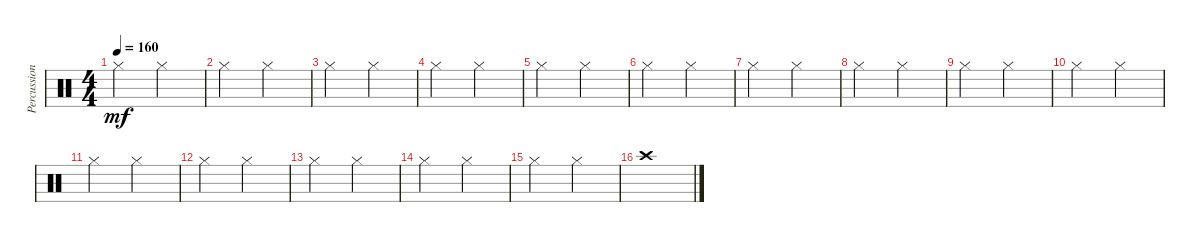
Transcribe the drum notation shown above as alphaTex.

\track ("Percussions" "Percussion") {instrument percussion}
\staff {score}
\articulation defaults
\ts (4 4)
\tempo 160
\clef neutral
\ks c "Hi-Hat (closed)".2{dy mf} "Hi-Hat (closed)".2
|
"Hi-Hat (closed)".2 "Hi-Hat (closed)".2 |
"Hi-Hat (closed)".2 "Hi-Hat (closed)".2 |
"Hi-Hat (closed)".2 "Hi-Hat (closed)".2 |
"Hi-Hat (closed)".2 "Hi-Hat (closed)".2 |
"Hi-Hat (closed)".2 "Hi-Hat (closed)".2 |
"Hi-Hat (closed)".2 "Hi-Hat (closed)".2 |
"Hi-Hat (closed)".2 "Hi-Hat (closed)".2 |
"Hi-Hat (closed)".2 "Hi-Hat (closed)".2 |
"Hi-Hat (closed)".2 "Hi-Hat (closed)".2 |
"Hi-Hat (closed)".2 "Hi-Hat (closed)".2 |
"Hi-Hat (closed)".2 "Hi-Hat (closed)".2 |
"Hi-Hat (closed)".2 "Hi-Hat (closed)".2 |
"Hi-Hat (closed)".2 "Hi-Hat (closed)".2 |
"Hi-Hat (closed)".2 "Hi-Hat (closed)".2 |
"Crash high (hit)".1
